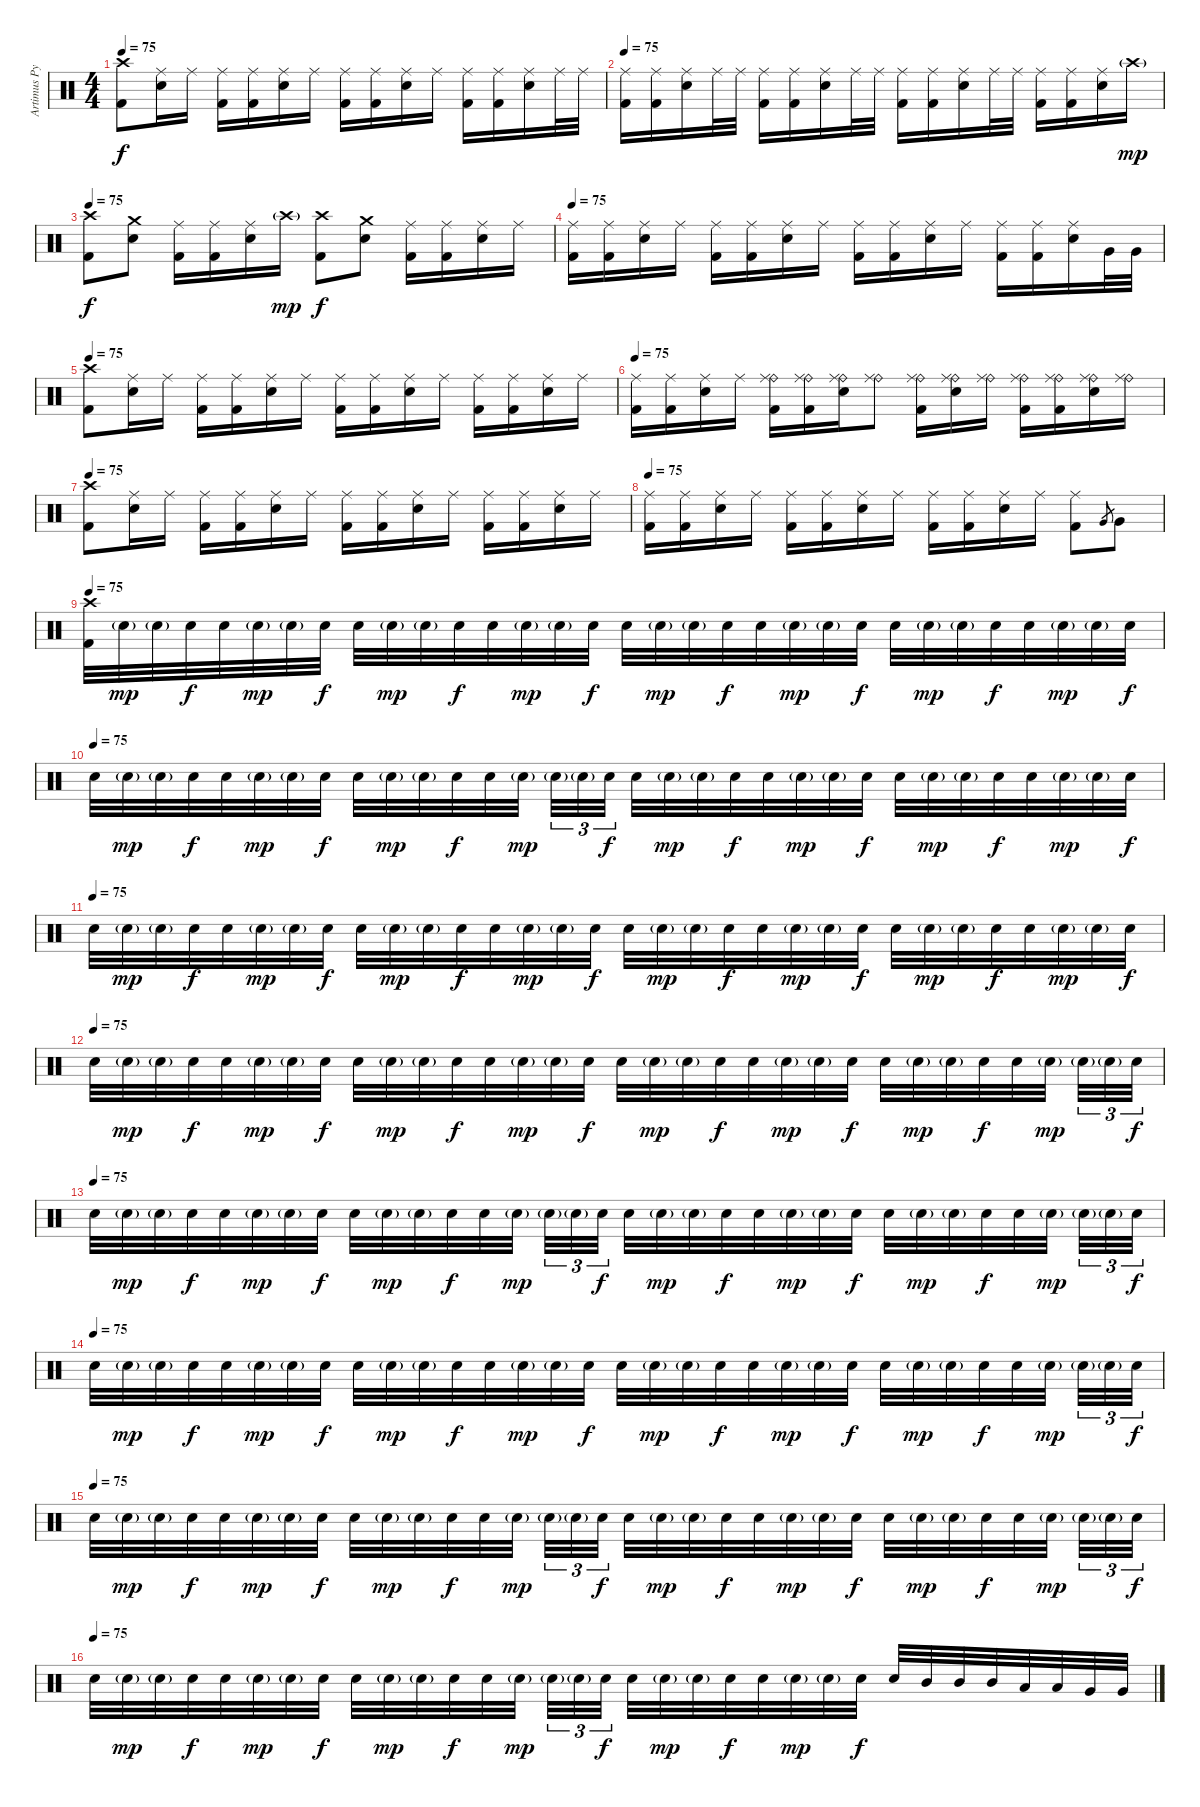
\track ("Artimus Pyle (drums)" "Artimus Py") {instrument percussion}
\staff {score}
\articulation defaults
\ts (4 4)
\tempo 75
\clef neutral
\ks c
("Crash high (hit)" "Kick (hit) 2").8{dy f} ("Ride (middle)" "Electric Snare (hit)").16 "Ride (middle)".16 ("Ride (middle)" "Kick (hit) 2").16 ("Ride (middle)" "Kick (hit) 2").16 ("Ride (middle)" "Electric Snare (hit)").16 "Ride (middle)".16 ("Ride (middle)" "Kick (hit) 2").16 ("Ride (middle)" "Kick (hit) 2").16 ("Ride (middle)" "Electric Snare (hit)").16 "Ride (middle)".16 ("Ride (middle)" "Kick (hit) 2").16 ("Ride (middle)" "Kick (hit) 2").16 ("Ride (middle)" "Electric Snare (hit)").16 "Ride (middle)".32 "Ride (middle)".32 |
\tempo 75
("Ride (middle)" "Kick (hit) 2").16 ("Ride (middle)" "Kick (hit) 2").16 ("Ride (middle)" "Electric Snare (hit)").16 "Ride (middle)".32 "Ride (middle)".32 ("Ride (middle)" "Kick (hit) 2").16 ("Ride (middle)" "Kick (hit) 2").16 ("Ride (middle)" "Electric Snare (hit)").16 "Ride (middle)".32 "Ride (middle)".32 ("Ride (middle)" "Kick (hit) 2").16 ("Ride (middle)" "Kick (hit) 2").16 ("Ride (middle)" "Electric Snare (hit)").16 "Ride (middle)".32 "Ride (middle)".32 ("Ride (middle)" "Kick (hit) 2").16 ("Ride (middle)" "Kick (hit) 2").16 ("Ride (middle)" "Electric Snare (hit)").16 "Crash high (hit)"{g}.16{dy mp} |
\tempo 75
("Crash high (hit)" "Kick (hit) 2").8{dy f} ("Crash medium (hit)" "Electric Snare (hit)").8 ("Ride (middle)" "Kick (hit) 2").16 ("Ride (middle)" "Kick (hit) 2").16 ("Ride (middle)" "Electric Snare (hit)").16 "Crash high (hit)"{g}.16{dy mp} ("Crash high (hit)" "Kick (hit) 2").8{dy f} ("Crash medium (hit)" "Electric Snare (hit)").8 ("Ride (middle)" "Kick (hit) 2").16 ("Ride (middle)" "Kick (hit) 2").16 ("Ride (middle)" "Electric Snare (hit)").16 "Ride (middle)".16 |
\tempo 75
("Ride (middle)" "Kick (hit) 2").16 ("Ride (middle)" "Kick (hit) 2").16 ("Ride (middle)" "Electric Snare (hit)").16 "Ride (middle)".16 ("Ride (middle)" "Kick (hit) 2").16 ("Ride (middle)" "Kick (hit) 2").16 ("Ride (middle)" "Electric Snare (hit)").16 "Ride (middle)".16 ("Ride (middle)" "Kick (hit) 2").16 ("Ride (middle)" "Kick (hit) 2").16 ("Ride (middle)" "Electric Snare (hit)").16 "Ride (middle)".16 ("Ride (middle)" "Kick (hit) 2").16 ("Ride (middle)" "Kick (hit) 2").16 ("Ride (middle)" "Electric Snare (hit)").16 "Very Low Tom (hit)".32 "Very Low Tom (hit)".32 |
\tempo 75
("Crash high (hit)" "Kick (hit) 2").8 ("Ride (middle)" "Electric Snare (hit)").16 "Ride (middle)".16 ("Ride (middle)" "Kick (hit) 2").16 ("Ride (middle)" "Kick (hit) 2").16 ("Ride (middle)" "Electric Snare (hit)").16 "Ride (middle)".16 ("Ride (middle)" "Kick (hit) 2").16 ("Ride (middle)" "Kick (hit) 2").16 ("Ride (middle)" "Electric Snare (hit)").16 "Ride (middle)".16 ("Ride (middle)" "Kick (hit) 2").16 ("Ride (middle)" "Kick (hit) 2").16 ("Ride (middle)" "Electric Snare (hit)").16 "Ride (middle)".16 |
\tempo 75
("Ride (middle)" "Kick (hit) 2").16 ("Ride (middle)" "Kick (hit) 2").16 ("Ride (middle)" "Electric Snare (hit)").16 "Ride (middle)".16 ("Ride (bell)" "Ride (middle)" "Kick (hit) 2").16 ("Ride (bell)" "Ride (middle)" "Kick (hit) 2").16 ("Ride (bell)" "Ride (middle)" "Electric Snare (hit)").16 ("Ride (bell)" "Ride (middle)").8 ("Ride (bell)" "Ride (middle)" "Kick (hit) 2").16 ("Ride (bell)" "Ride (middle)" "Electric Snare (hit)").16 ("Ride (bell)" "Ride (middle)").16 ("Ride (bell)" "Ride (middle)" "Kick (hit) 2").16 ("Ride (bell)" "Ride (middle)" "Kick (hit) 2").16 ("Ride (bell)" "Ride (middle)" "Electric Snare (hit)").16 ("Ride (bell)" "Ride (middle)").16 |
\tempo 75
("Crash high (hit)" "Kick (hit) 2").8 ("Ride (middle)" "Electric Snare (hit)").16 "Ride (middle)".16 ("Ride (middle)" "Kick (hit) 2").16 ("Ride (middle)" "Kick (hit) 2").16 ("Ride (middle)" "Electric Snare (hit)").16 "Ride (middle)".16 ("Ride (middle)" "Kick (hit) 2").16 ("Ride (middle)" "Kick (hit) 2").16 ("Ride (middle)" "Electric Snare (hit)").16 "Ride (middle)".16 ("Ride (middle)" "Kick (hit) 2").16 ("Ride (middle)" "Kick (hit) 2").16 ("Ride (middle)" "Electric Snare (hit)").16 "Ride (middle)".16 |
\tempo 75
("Ride (middle)" "Kick (hit) 2").16 ("Ride (middle)" "Kick (hit) 2").16 ("Ride (middle)" "Electric Snare (hit)").16 "Ride (middle)".16 ("Ride (middle)" "Kick (hit) 2").16 ("Ride (middle)" "Kick (hit) 2").16 ("Ride (middle)" "Electric Snare (hit)").16 "Ride (middle)".16 ("Ride (middle)" "Kick (hit) 2").16 ("Ride (middle)" "Kick (hit) 2").16 ("Ride (middle)" "Electric Snare (hit)").16 "Ride (middle)".16 ("Ride (middle)" "Kick (hit) 2").8 "Very Low Tom (hit)".8{gr} "Very Low Tom (hit)".8 |
\tempo 75
("Crash high (hit)" "Kick (hit) 2").32 "Electric Snare (hit)"{g}.32{dy mp} "Electric Snare (hit)"{g}.32 "Electric Snare (hit)".32{dy f} "Electric Snare (hit)".32 "Electric Snare (hit)"{g}.32{dy mp} "Electric Snare (hit)"{g}.32 "Electric Snare (hit)".32{dy f} "Electric Snare (hit)".32 "Electric Snare (hit)"{g}.32{dy mp} "Electric Snare (hit)"{g}.32 "Electric Snare (hit)".32{dy f} "Electric Snare (hit)".32 "Electric Snare (hit)"{g}.32{dy mp} "Electric Snare (hit)"{g}.32 "Electric Snare (hit)".32{dy f} "Electric Snare (hit)".32 "Electric Snare (hit)"{g}.32{dy mp} "Electric Snare (hit)"{g}.32 "Electric Snare (hit)".32{dy f} "Electric Snare (hit)".32 "Electric Snare (hit)"{g}.32{dy mp} "Electric Snare (hit)"{g}.32 "Electric Snare (hit)".32{dy f} "Electric Snare (hit)".32 "Electric Snare (hit)"{g}.32{dy mp} "Electric Snare (hit)"{g}.32 "Electric Snare (hit)".32{dy f} "Electric Snare (hit)".32 "Electric Snare (hit)"{g}.32{dy mp} "Electric Snare (hit)"{g}.32 "Electric Snare (hit)".32{dy f} |
\tempo (75)
"Electric Snare (hit)".32 "Electric Snare (hit)"{g}.32{dy mp} "Electric Snare (hit)"{g}.32 "Electric Snare (hit)".32{dy f} "Electric Snare (hit)".32 "Electric Snare (hit)"{g}.32{dy mp} "Electric Snare (hit)"{g}.32 "Electric Snare (hit)".32{dy f} "Electric Snare (hit)".32 "Electric Snare (hit)"{g}.32{dy mp} "Electric Snare (hit)"{g}.32 "Electric Snare (hit)".32{dy f} "Electric Snare (hit)".32 "Electric Snare (hit)"{g}.32{dy mp} "Electric Snare (hit)"{g}.32{tu (3 2)} "Electric Snare (hit)"{g}.32{tu (3 2)} "Electric Snare (hit)".32{tu (3 2) dy f} "Electric Snare (hit)".32 "Electric Snare (hit)"{g}.32{dy mp} "Electric Snare (hit)"{g}.32 "Electric Snare (hit)".32{dy f} "Electric Snare (hit)".32 "Electric Snare (hit)"{g}.32{dy mp} "Electric Snare (hit)"{g}.32 "Electric Snare (hit)".32{dy f} "Electric Snare (hit)".32 "Electric Snare (hit)"{g}.32{dy mp} "Electric Snare (hit)"{g}.32 "Electric Snare (hit)".32{dy f} "Electric Snare (hit)".32 "Electric Snare (hit)"{g}.32{dy mp} "Electric Snare (hit)"{g}.32 "Electric Snare (hit)".32{dy f} |
\tempo (75)
"Electric Snare (hit)".32 "Electric Snare (hit)"{g}.32{dy mp} "Electric Snare (hit)"{g}.32 "Electric Snare (hit)".32{dy f} "Electric Snare (hit)".32 "Electric Snare (hit)"{g}.32{dy mp} "Electric Snare (hit)"{g}.32 "Electric Snare (hit)".32{dy f} "Electric Snare (hit)".32 "Electric Snare (hit)"{g}.32{dy mp} "Electric Snare (hit)"{g}.32 "Electric Snare (hit)".32{dy f} "Electric Snare (hit)".32 "Electric Snare (hit)"{g}.32{dy mp} "Electric Snare (hit)"{g}.32 "Electric Snare (hit)".32{dy f} "Electric Snare (hit)".32 "Electric Snare (hit)"{g}.32{dy mp} "Electric Snare (hit)"{g}.32 "Electric Snare (hit)".32{dy f} "Electric Snare (hit)".32 "Electric Snare (hit)"{g}.32{dy mp} "Electric Snare (hit)"{g}.32 "Electric Snare (hit)".32{dy f} "Electric Snare (hit)".32 "Electric Snare (hit)"{g}.32{dy mp} "Electric Snare (hit)"{g}.32 "Electric Snare (hit)".32{dy f} "Electric Snare (hit)".32 "Electric Snare (hit)"{g}.32{dy mp} "Electric Snare (hit)"{g}.32 "Electric Snare (hit)".32{dy f} |
\tempo (75)
"Electric Snare (hit)".32 "Electric Snare (hit)"{g}.32{dy mp} "Electric Snare (hit)"{g}.32 "Electric Snare (hit)".32{dy f} "Electric Snare (hit)".32 "Electric Snare (hit)"{g}.32{dy mp} "Electric Snare (hit)"{g}.32 "Electric Snare (hit)".32{dy f} "Electric Snare (hit)".32 "Electric Snare (hit)"{g}.32{dy mp} "Electric Snare (hit)"{g}.32 "Electric Snare (hit)".32{dy f} "Electric Snare (hit)".32 "Electric Snare (hit)"{g}.32{dy mp} "Electric Snare (hit)"{g}.32 "Electric Snare (hit)".32{dy f} "Electric Snare (hit)".32 "Electric Snare (hit)"{g}.32{dy mp} "Electric Snare (hit)"{g}.32 "Electric Snare (hit)".32{dy f} "Electric Snare (hit)".32 "Electric Snare (hit)"{g}.32{dy mp} "Electric Snare (hit)"{g}.32 "Electric Snare (hit)".32{dy f} "Electric Snare (hit)".32 "Electric Snare (hit)"{g}.32{dy mp} "Electric Snare (hit)"{g}.32 "Electric Snare (hit)".32{dy f} "Electric Snare (hit)".32 "Electric Snare (hit)"{g}.32{dy mp} "Electric Snare (hit)"{g}.32{tu (3 2)} "Electric Snare (hit)"{g}.32{tu (3 2)} "Electric Snare (hit)".32{tu (3 2) dy f} |
\tempo (75)
"Electric Snare (hit)".32 "Electric Snare (hit)"{g}.32{dy mp} "Electric Snare (hit)"{g}.32 "Electric Snare (hit)".32{dy f} "Electric Snare (hit)".32 "Electric Snare (hit)"{g}.32{dy mp} "Electric Snare (hit)"{g}.32 "Electric Snare (hit)".32{dy f} "Electric Snare (hit)".32 "Electric Snare (hit)"{g}.32{dy mp} "Electric Snare (hit)"{g}.32 "Electric Snare (hit)".32{dy f} "Electric Snare (hit)".32 "Electric Snare (hit)"{g}.32{dy mp} "Electric Snare (hit)"{g}.32{tu (3 2)} "Electric Snare (hit)"{g}.32{tu (3 2)} "Electric Snare (hit)".32{tu (3 2) dy f} "Electric Snare (hit)".32 "Electric Snare (hit)"{g}.32{dy mp} "Electric Snare (hit)"{g}.32 "Electric Snare (hit)".32{dy f} "Electric Snare (hit)".32 "Electric Snare (hit)"{g}.32{dy mp} "Electric Snare (hit)"{g}.32 "Electric Snare (hit)".32{dy f} "Electric Snare (hit)".32 "Electric Snare (hit)"{g}.32{dy mp} "Electric Snare (hit)"{g}.32 "Electric Snare (hit)".32{dy f} "Electric Snare (hit)".32 "Electric Snare (hit)"{g}.32{dy mp} "Electric Snare (hit)"{g}.32{tu (3 2)} "Electric Snare (hit)"{g}.32{tu (3 2)} "Electric Snare (hit)".32{tu (3 2) dy f} |
\tempo (75)
"Electric Snare (hit)".32 "Electric Snare (hit)"{g}.32{dy mp} "Electric Snare (hit)"{g}.32 "Electric Snare (hit)".32{dy f} "Electric Snare (hit)".32 "Electric Snare (hit)"{g}.32{dy mp} "Electric Snare (hit)"{g}.32 "Electric Snare (hit)".32{dy f} "Electric Snare (hit)".32 "Electric Snare (hit)"{g}.32{dy mp} "Electric Snare (hit)"{g}.32 "Electric Snare (hit)".32{dy f} "Electric Snare (hit)".32 "Electric Snare (hit)"{g}.32{dy mp} "Electric Snare (hit)"{g}.32 "Electric Snare (hit)".32{dy f} "Electric Snare (hit)".32 "Electric Snare (hit)"{g}.32{dy mp} "Electric Snare (hit)"{g}.32 "Electric Snare (hit)".32{dy f} "Electric Snare (hit)".32 "Electric Snare (hit)"{g}.32{dy mp} "Electric Snare (hit)"{g}.32 "Electric Snare (hit)".32{dy f} "Electric Snare (hit)".32 "Electric Snare (hit)"{g}.32{dy mp} "Electric Snare (hit)"{g}.32 "Electric Snare (hit)".32{dy f} "Electric Snare (hit)".32 "Electric Snare (hit)"{g}.32{dy mp} "Electric Snare (hit)"{g}.32{tu (3 2)} "Electric Snare (hit)"{g}.32{tu (3 2)} "Electric Snare (hit)".32{tu (3 2) dy f} |
\tempo (75)
"Electric Snare (hit)".32 "Electric Snare (hit)"{g}.32{dy mp} "Electric Snare (hit)"{g}.32 "Electric Snare (hit)".32{dy f} "Electric Snare (hit)".32 "Electric Snare (hit)"{g}.32{dy mp} "Electric Snare (hit)"{g}.32 "Electric Snare (hit)".32{dy f} "Electric Snare (hit)".32 "Electric Snare (hit)"{g}.32{dy mp} "Electric Snare (hit)"{g}.32 "Electric Snare (hit)".32{dy f} "Electric Snare (hit)".32 "Electric Snare (hit)"{g}.32{dy mp} "Electric Snare (hit)"{g}.32{tu (3 2)} "Electric Snare (hit)"{g}.32{tu (3 2)} "Electric Snare (hit)".32{tu (3 2) dy f} "Electric Snare (hit)".32 "Electric Snare (hit)"{g}.32{dy mp} "Electric Snare (hit)"{g}.32 "Electric Snare (hit)".32{dy f} "Electric Snare (hit)".32 "Electric Snare (hit)"{g}.32{dy mp} "Electric Snare (hit)"{g}.32 "Electric Snare (hit)".32{dy f} "Electric Snare (hit)".32 "Electric Snare (hit)"{g}.32{dy mp} "Electric Snare (hit)"{g}.32 "Electric Snare (hit)".32{dy f} "Electric Snare (hit)".32 "Electric Snare (hit)"{g}.32{dy mp} "Electric Snare (hit)"{g}.32{tu (3 2)} "Electric Snare (hit)"{g}.32{tu (3 2)} "Electric Snare (hit)".32{tu (3 2) dy f} |
\tempo (75)
"Electric Snare (hit)".32 "Electric Snare (hit)"{g}.32{dy mp} "Electric Snare (hit)"{g}.32 "Electric Snare (hit)".32{dy f} "Electric Snare (hit)".32 "Electric Snare (hit)"{g}.32{dy mp} "Electric Snare (hit)"{g}.32 "Electric Snare (hit)".32{dy f} "Electric Snare (hit)".32 "Electric Snare (hit)"{g}.32{dy mp} "Electric Snare (hit)"{g}.32 "Electric Snare (hit)".32{dy f} "Electric Snare (hit)".32 "Electric Snare (hit)"{g}.32{dy mp} "Electric Snare (hit)"{g}.32{tu (3 2)} "Electric Snare (hit)"{g}.32{tu (3 2)} "Electric Snare (hit)".32{tu (3 2) dy f} "Electric Snare (hit)".32 "Electric Snare (hit)"{g}.32{dy mp} "Electric Snare (hit)"{g}.32 "Electric Snare (hit)".32{dy f} "Electric Snare (hit)".32 "Electric Snare (hit)"{g}.32{dy mp} "Electric Snare (hit)"{g}.32 "Electric Snare (hit)".32{dy f} "Electric Snare (hit)".32 "Mid Tom (hit)".32 "Mid Tom (hit)".32 "Mid Tom (hit)".32 "Low Tom (hit)".32 "Low Tom (hit)".32 "Very Low Tom (hit)".32 "Very Low Tom (hit)".32
